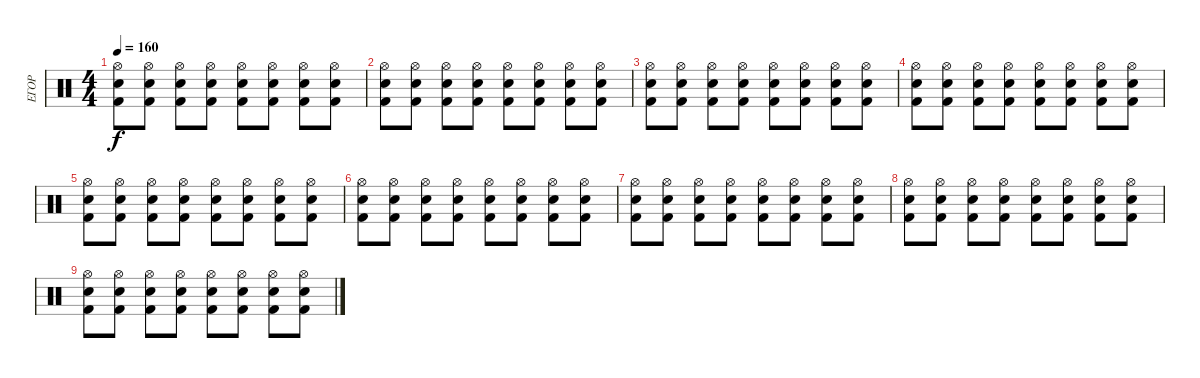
\track ("ЕГОР" "ЕГОР") {instrument percussion}
\staff {score}
\articulation defaults
\ts (4 4)
\tempo 160
\clef neutral
\ks c
("Hi-Hat (open)" "Electric Snare (hit)" "Kick (hit) 2").8{dy f} ("Hi-Hat (open)" "Electric Snare (hit)" "Kick (hit) 2").8 ("Hi-Hat (open)" "Electric Snare (hit)" "Kick (hit) 2").8 ("Hi-Hat (open)" "Electric Snare (hit)" "Kick (hit) 2").8 ("Hi-Hat (open)" "Electric Snare (hit)" "Kick (hit) 2").8 ("Hi-Hat (open)" "Electric Snare (hit)" "Kick (hit) 2").8 ("Hi-Hat (open)" "Electric Snare (hit)" "Kick (hit) 2").8 ("Hi-Hat (open)" "Electric Snare (hit)" "Kick (hit) 2").8 |
("Hi-Hat (open)" "Electric Snare (hit)" "Kick (hit) 2").8 ("Hi-Hat (open)" "Electric Snare (hit)" "Kick (hit) 2").8 ("Hi-Hat (open)" "Electric Snare (hit)" "Kick (hit) 2").8 ("Hi-Hat (open)" "Electric Snare (hit)" "Kick (hit) 2").8 ("Hi-Hat (open)" "Electric Snare (hit)" "Kick (hit) 2").8 ("Hi-Hat (open)" "Electric Snare (hit)" "Kick (hit) 2").8 ("Hi-Hat (open)" "Electric Snare (hit)" "Kick (hit) 2").8 ("Hi-Hat (open)" "Electric Snare (hit)" "Kick (hit) 2").8 |
("Hi-Hat (open)" "Electric Snare (hit)" "Kick (hit) 2").8 ("Hi-Hat (open)" "Electric Snare (hit)" "Kick (hit) 2").8 ("Hi-Hat (open)" "Electric Snare (hit)" "Kick (hit) 2").8 ("Hi-Hat (open)" "Electric Snare (hit)" "Kick (hit) 2").8 ("Hi-Hat (open)" "Electric Snare (hit)" "Kick (hit) 2").8 ("Hi-Hat (open)" "Electric Snare (hit)" "Kick (hit) 2").8 ("Hi-Hat (open)" "Electric Snare (hit)" "Kick (hit) 2").8 ("Hi-Hat (open)" "Electric Snare (hit)" "Kick (hit) 2").8 |
("Hi-Hat (open)" "Electric Snare (hit)" "Kick (hit) 2").8 ("Hi-Hat (open)" "Electric Snare (hit)" "Kick (hit) 2").8 ("Hi-Hat (open)" "Electric Snare (hit)" "Kick (hit) 2").8 ("Hi-Hat (open)" "Electric Snare (hit)" "Kick (hit) 2").8 ("Hi-Hat (open)" "Electric Snare (hit)" "Kick (hit) 2").8 ("Hi-Hat (open)" "Electric Snare (hit)" "Kick (hit) 2").8 ("Hi-Hat (open)" "Electric Snare (hit)" "Kick (hit) 2").8 ("Hi-Hat (open)" "Electric Snare (hit)" "Kick (hit) 2").8 |
("Hi-Hat (open)" "Electric Snare (hit)" "Kick (hit) 2").8 ("Hi-Hat (open)" "Electric Snare (hit)" "Kick (hit) 2").8 ("Hi-Hat (open)" "Electric Snare (hit)" "Kick (hit) 2").8 ("Hi-Hat (open)" "Electric Snare (hit)" "Kick (hit) 2").8 ("Hi-Hat (open)" "Electric Snare (hit)" "Kick (hit) 2").8 ("Hi-Hat (open)" "Electric Snare (hit)" "Kick (hit) 2").8 ("Hi-Hat (open)" "Electric Snare (hit)" "Kick (hit) 2").8 ("Hi-Hat (open)" "Electric Snare (hit)" "Kick (hit) 2").8 |
("Hi-Hat (open)" "Electric Snare (hit)" "Kick (hit) 2").8 ("Hi-Hat (open)" "Electric Snare (hit)" "Kick (hit) 2").8 ("Hi-Hat (open)" "Electric Snare (hit)" "Kick (hit) 2").8 ("Hi-Hat (open)" "Electric Snare (hit)" "Kick (hit) 2").8 ("Hi-Hat (open)" "Electric Snare (hit)" "Kick (hit) 2").8 ("Hi-Hat (open)" "Electric Snare (hit)" "Kick (hit) 2").8 ("Hi-Hat (open)" "Electric Snare (hit)" "Kick (hit) 2").8 ("Hi-Hat (open)" "Electric Snare (hit)" "Kick (hit) 2").8 |
("Hi-Hat (open)" "Electric Snare (hit)" "Kick (hit) 2").8 ("Hi-Hat (open)" "Electric Snare (hit)" "Kick (hit) 2").8 ("Hi-Hat (open)" "Electric Snare (hit)" "Kick (hit) 2").8 ("Hi-Hat (open)" "Electric Snare (hit)" "Kick (hit) 2").8 ("Hi-Hat (open)" "Electric Snare (hit)" "Kick (hit) 2").8 ("Hi-Hat (open)" "Electric Snare (hit)" "Kick (hit) 2").8 ("Hi-Hat (open)" "Electric Snare (hit)" "Kick (hit) 2").8 ("Hi-Hat (open)" "Electric Snare (hit)" "Kick (hit) 2").8 |
("Hi-Hat (open)" "Electric Snare (hit)" "Kick (hit) 2").8 ("Hi-Hat (open)" "Electric Snare (hit)" "Kick (hit) 2").8 ("Hi-Hat (open)" "Electric Snare (hit)" "Kick (hit) 2").8 ("Hi-Hat (open)" "Electric Snare (hit)" "Kick (hit) 2").8 ("Hi-Hat (open)" "Electric Snare (hit)" "Kick (hit) 2").8 ("Hi-Hat (open)" "Electric Snare (hit)" "Kick (hit) 2").8 ("Hi-Hat (open)" "Electric Snare (hit)" "Kick (hit) 2").8 ("Hi-Hat (open)" "Electric Snare (hit)" "Kick (hit) 2").8 |
("Hi-Hat (open)" "Electric Snare (hit)" "Kick (hit) 2").8 ("Hi-Hat (open)" "Electric Snare (hit)" "Kick (hit) 2").8 ("Hi-Hat (open)" "Electric Snare (hit)" "Kick (hit) 2").8 ("Hi-Hat (open)" "Electric Snare (hit)" "Kick (hit) 2").8 ("Hi-Hat (open)" "Electric Snare (hit)" "Kick (hit) 2").8 ("Hi-Hat (open)" "Electric Snare (hit)" "Kick (hit) 2").8 ("Hi-Hat (open)" "Electric Snare (hit)" "Kick (hit) 2").8 ("Hi-Hat (open)" "Electric Snare (hit)" "Kick (hit) 2").8
